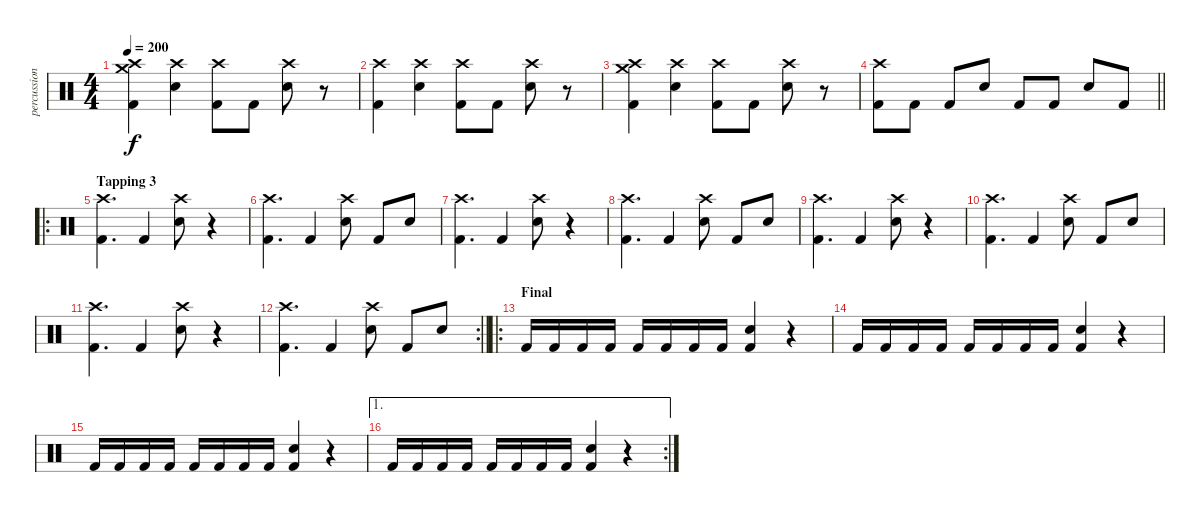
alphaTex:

\track ("percussion" "percussion") {instrument percussion}
\staff {score}
\articulation defaults
\ts (4 4)
\tempo 200
\clef neutral
\ks c
("Kick (hit) 2" "Crash medium (hit)" "Crash high (hit)").4{dy f} ("Electric Snare (hit)" "Crash high (hit)").4 ("Kick (hit) 2" "Crash high (hit)").8 "Kick (hit) 2".8 ("Electric Snare (hit)" "Crash high (hit)").8 r.8 |
("Kick (hit) 2" "Crash high (hit)").4 ("Electric Snare (hit)" "Crash high (hit)").4 ("Kick (hit) 2" "Crash high (hit)").8 "Kick (hit) 2".8 ("Electric Snare (hit)" "Crash high (hit)").8 r.8 |
("Kick (hit) 2" "Crash medium (hit)" "Crash high (hit)").4 ("Electric Snare (hit)" "Crash high (hit)").4 ("Kick (hit) 2" "Crash high (hit)").8 "Kick (hit) 2".8 ("Electric Snare (hit)" "Crash high (hit)").8 r.8 |
\barLineRight lightlight
("Kick (hit) 2" "Crash high (hit)").8 "Kick (hit) 2".8 "Kick (hit) 2".8 "Electric Snare (hit)".8 "Kick (hit) 2".8 "Kick (hit) 2".8 "Electric Snare (hit)".8 "Kick (hit) 2".8 |
\ro
\section ("" "Tapping 3")
("Kick (hit) 2" "Crash high (hit)").4{d} "Kick (hit) 2".4 ("Electric Snare (hit)" "Crash high (hit)").8 r.4 |
("Kick (hit) 2" "Crash high (hit)").4{d} "Kick (hit) 2".4 ("Electric Snare (hit)" "Crash high (hit)").8 "Kick (hit) 2".8 "Electric Snare (hit)".8 |
("Kick (hit) 2" "Crash high (hit)").4{d} "Kick (hit) 2".4 ("Electric Snare (hit)" "Crash high (hit)").8 r.4 |
("Kick (hit) 2" "Crash high (hit)").4{d} "Kick (hit) 2".4 ("Electric Snare (hit)" "Crash high (hit)").8 "Kick (hit) 2".8 "Electric Snare (hit)".8 |
("Kick (hit) 2" "Crash high (hit)").4{d} "Kick (hit) 2".4 ("Electric Snare (hit)" "Crash high (hit)").8 r.4 |
("Kick (hit) 2" "Crash high (hit)").4{d} "Kick (hit) 2".4 ("Electric Snare (hit)" "Crash high (hit)").8 "Kick (hit) 2".8 "Electric Snare (hit)".8 |
("Kick (hit) 2" "Crash high (hit)").4{d} "Kick (hit) 2".4 ("Electric Snare (hit)" "Crash high (hit)").8 r.4 |
\rc 2
\barLineRight lightlight
("Kick (hit) 2" "Crash high (hit)").4{d} "Kick (hit) 2".4 ("Electric Snare (hit)" "Crash high (hit)").8 "Kick (hit) 2".8 "Electric Snare (hit)".8 |
\ro
\section ("" "Final")
"Kick (hit) 2".16 "Kick (hit) 2".16 "Kick (hit) 2".16 "Kick (hit) 2".16 "Kick (hit) 2".16 "Kick (hit) 2".16 "Kick (hit) 2".16 "Kick (hit) 2".16 ("Kick (hit) 2" "Electric Snare (hit)").4 r.4 |
"Kick (hit) 2".16 "Kick (hit) 2".16 "Kick (hit) 2".16 "Kick (hit) 2".16 "Kick (hit) 2".16 "Kick (hit) 2".16 "Kick (hit) 2".16 "Kick (hit) 2".16 ("Kick (hit) 2" "Electric Snare (hit)").4 r.4 |
"Kick (hit) 2".16 "Kick (hit) 2".16 "Kick (hit) 2".16 "Kick (hit) 2".16 "Kick (hit) 2".16 "Kick (hit) 2".16 "Kick (hit) 2".16 "Kick (hit) 2".16 ("Kick (hit) 2" "Electric Snare (hit)").4 r.4 |
\ae 1
\rc 2 "Kick (hit) 2".16 "Kick (hit) 2".16 "Kick (hit) 2".16 "Kick (hit) 2".16 "Kick (hit) 2".16 "Kick (hit) 2".16 "Kick (hit) 2".16 "Kick (hit) 2".16
("Kick (hit) 2" "Electric Snare (hit)").4 r.4
